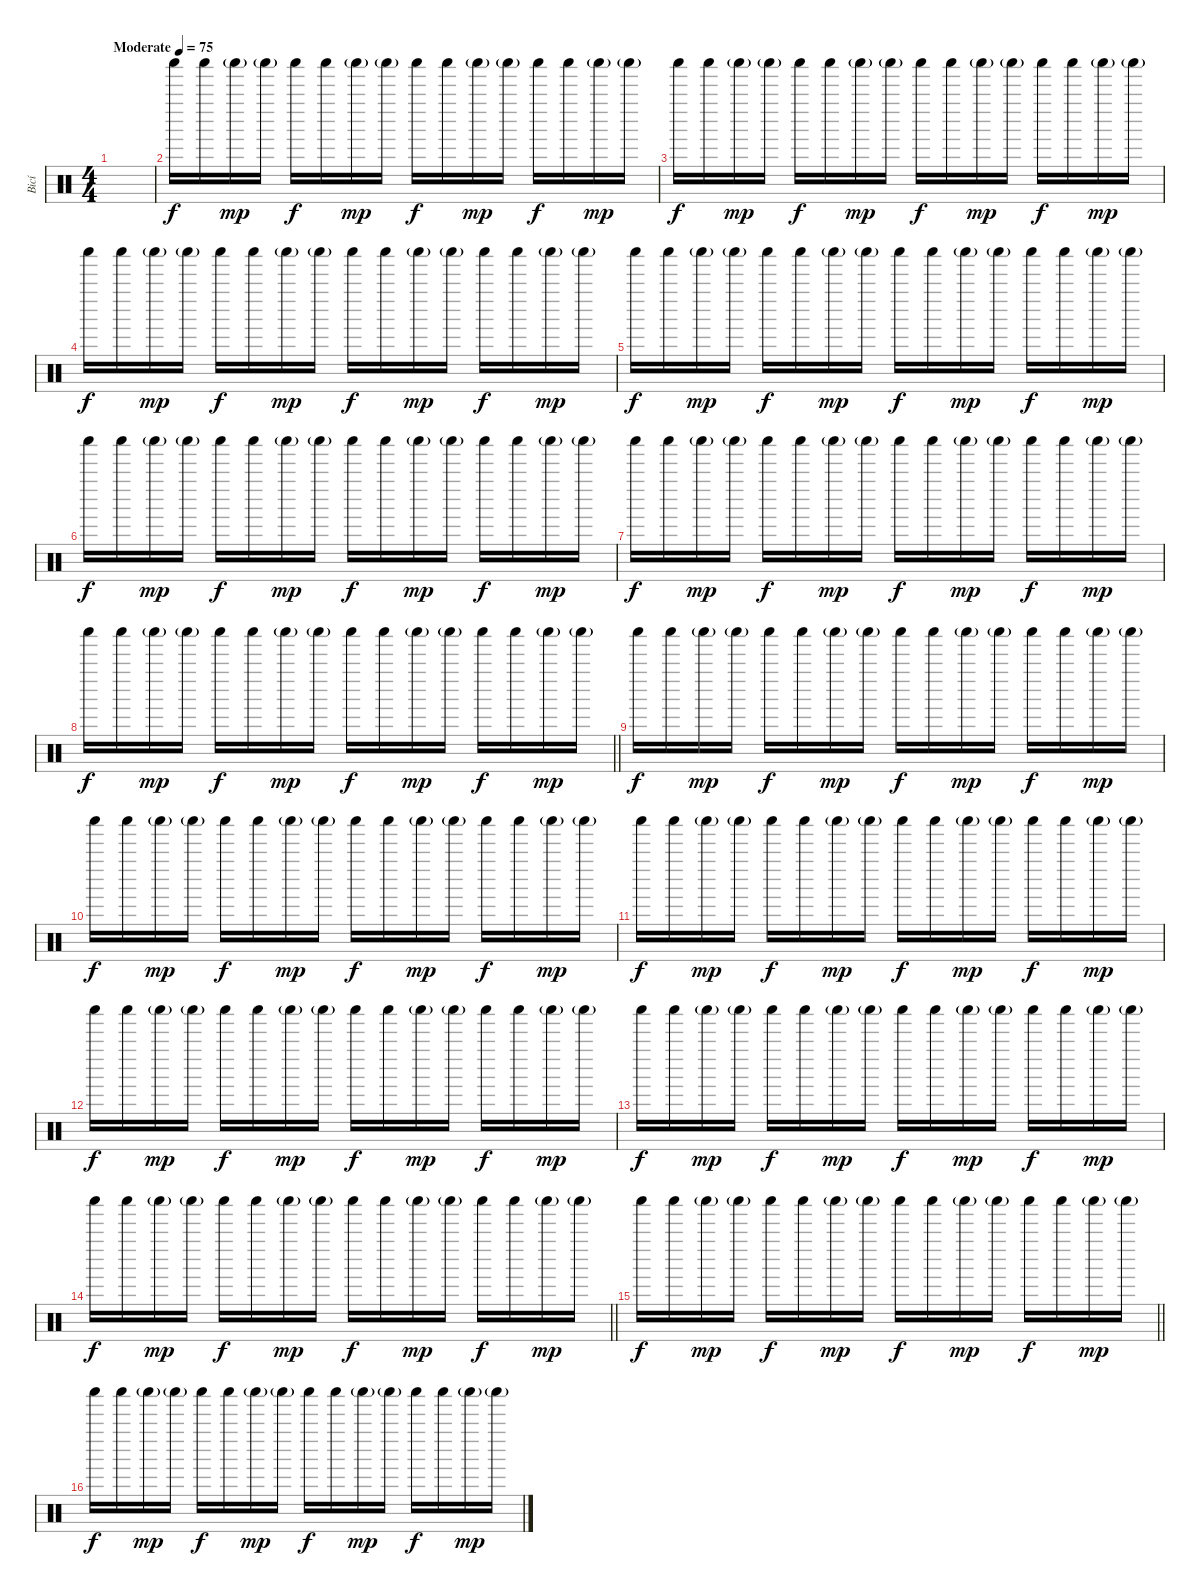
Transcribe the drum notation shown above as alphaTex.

\track ("Bicí" "Bicí") {instrument percussion}
\staff {score}
\articulation defaults
\ts (4 4)
\tempo (75 "Moderate")
\clef neutral
\ks c
|
"Shaker (hit)".16 "Shaker (hit)".16 "Shaker (hit)"{g}.16{dy mp} "Shaker (hit)"{g}.16 "Shaker (hit)".16{dy f} "Shaker (hit)".16 "Shaker (hit)"{g}.16{dy mp} "Shaker (hit)"{g}.16 "Shaker (hit)".16{dy f} "Shaker (hit)".16 "Shaker (hit)"{g}.16{dy mp} "Shaker (hit)"{g}.16 "Shaker (hit)".16{dy f} "Shaker (hit)".16 "Shaker (hit)"{g}.16{dy mp} "Shaker (hit)"{g}.16 |
"Shaker (hit)".16{dy f} "Shaker (hit)".16 "Shaker (hit)"{g}.16{dy mp} "Shaker (hit)"{g}.16 "Shaker (hit)".16{dy f} "Shaker (hit)".16 "Shaker (hit)"{g}.16{dy mp} "Shaker (hit)"{g}.16 "Shaker (hit)".16{dy f} "Shaker (hit)".16 "Shaker (hit)"{g}.16{dy mp} "Shaker (hit)"{g}.16 "Shaker (hit)".16{dy f} "Shaker (hit)".16 "Shaker (hit)"{g}.16{dy mp} "Shaker (hit)"{g}.16 |
"Shaker (hit)".16{dy f} "Shaker (hit)".16 "Shaker (hit)"{g}.16{dy mp} "Shaker (hit)"{g}.16 "Shaker (hit)".16{dy f} "Shaker (hit)".16 "Shaker (hit)"{g}.16{dy mp} "Shaker (hit)"{g}.16 "Shaker (hit)".16{dy f} "Shaker (hit)".16 "Shaker (hit)"{g}.16{dy mp} "Shaker (hit)"{g}.16 "Shaker (hit)".16{dy f} "Shaker (hit)".16 "Shaker (hit)"{g}.16{dy mp} "Shaker (hit)"{g}.16 |
"Shaker (hit)".16{dy f} "Shaker (hit)".16 "Shaker (hit)"{g}.16{dy mp} "Shaker (hit)"{g}.16 "Shaker (hit)".16{dy f} "Shaker (hit)".16 "Shaker (hit)"{g}.16{dy mp} "Shaker (hit)"{g}.16 "Shaker (hit)".16{dy f} "Shaker (hit)".16 "Shaker (hit)"{g}.16{dy mp} "Shaker (hit)"{g}.16 "Shaker (hit)".16{dy f} "Shaker (hit)".16 "Shaker (hit)"{g}.16{dy mp} "Shaker (hit)"{g}.16 |
"Shaker (hit)".16{dy f} "Shaker (hit)".16 "Shaker (hit)"{g}.16{dy mp} "Shaker (hit)"{g}.16 "Shaker (hit)".16{dy f} "Shaker (hit)".16 "Shaker (hit)"{g}.16{dy mp} "Shaker (hit)"{g}.16 "Shaker (hit)".16{dy f} "Shaker (hit)".16 "Shaker (hit)"{g}.16{dy mp} "Shaker (hit)"{g}.16 "Shaker (hit)".16{dy f} "Shaker (hit)".16 "Shaker (hit)"{g}.16{dy mp} "Shaker (hit)"{g}.16 |
"Shaker (hit)".16{dy f} "Shaker (hit)".16 "Shaker (hit)"{g}.16{dy mp} "Shaker (hit)"{g}.16 "Shaker (hit)".16{dy f} "Shaker (hit)".16 "Shaker (hit)"{g}.16{dy mp} "Shaker (hit)"{g}.16 "Shaker (hit)".16{dy f} "Shaker (hit)".16 "Shaker (hit)"{g}.16{dy mp} "Shaker (hit)"{g}.16 "Shaker (hit)".16{dy f} "Shaker (hit)".16 "Shaker (hit)"{g}.16{dy mp} "Shaker (hit)"{g}.16 |
\barLineRight lightlight "Shaker (hit)".16{dy f} "Shaker (hit)".16 "Shaker (hit)"{g}.16{dy mp} "Shaker (hit)"{g}.16 "Shaker (hit)".16{dy f} "Shaker (hit)".16 "Shaker (hit)"{g}.16{dy mp} "Shaker (hit)"{g}.16 "Shaker (hit)".16{dy f} "Shaker (hit)".16 "Shaker (hit)"{g}.16{dy mp} "Shaker (hit)"{g}.16 "Shaker (hit)".16{dy f} "Shaker (hit)".16 "Shaker (hit)"{g}.16{dy mp} "Shaker (hit)"{g}.16
|
\section ("" "")
"Shaker (hit)".16{dy f} "Shaker (hit)".16 "Shaker (hit)"{g}.16{dy mp} "Shaker (hit)"{g}.16 "Shaker (hit)".16{dy f} "Shaker (hit)".16 "Shaker (hit)"{g}.16{dy mp} "Shaker (hit)"{g}.16 "Shaker (hit)".16{dy f} "Shaker (hit)".16 "Shaker (hit)"{g}.16{dy mp} "Shaker (hit)"{g}.16 "Shaker (hit)".16{dy f} "Shaker (hit)".16 "Shaker (hit)"{g}.16{dy mp} "Shaker (hit)"{g}.16 |
"Shaker (hit)".16{dy f} "Shaker (hit)".16 "Shaker (hit)"{g}.16{dy mp} "Shaker (hit)"{g}.16 "Shaker (hit)".16{dy f} "Shaker (hit)".16 "Shaker (hit)"{g}.16{dy mp} "Shaker (hit)"{g}.16 "Shaker (hit)".16{dy f} "Shaker (hit)".16 "Shaker (hit)"{g}.16{dy mp} "Shaker (hit)"{g}.16 "Shaker (hit)".16{dy f} "Shaker (hit)".16 "Shaker (hit)"{g}.16{dy mp} "Shaker (hit)"{g}.16 |
"Shaker (hit)".16{dy f} "Shaker (hit)".16 "Shaker (hit)"{g}.16{dy mp} "Shaker (hit)"{g}.16 "Shaker (hit)".16{dy f} "Shaker (hit)".16 "Shaker (hit)"{g}.16{dy mp} "Shaker (hit)"{g}.16 "Shaker (hit)".16{dy f} "Shaker (hit)".16 "Shaker (hit)"{g}.16{dy mp} "Shaker (hit)"{g}.16 "Shaker (hit)".16{dy f} "Shaker (hit)".16 "Shaker (hit)"{g}.16{dy mp} "Shaker (hit)"{g}.16 |
"Shaker (hit)".16{dy f} "Shaker (hit)".16 "Shaker (hit)"{g}.16{dy mp} "Shaker (hit)"{g}.16 "Shaker (hit)".16{dy f} "Shaker (hit)".16 "Shaker (hit)"{g}.16{dy mp} "Shaker (hit)"{g}.16 "Shaker (hit)".16{dy f} "Shaker (hit)".16 "Shaker (hit)"{g}.16{dy mp} "Shaker (hit)"{g}.16 "Shaker (hit)".16{dy f} "Shaker (hit)".16 "Shaker (hit)"{g}.16{dy mp} "Shaker (hit)"{g}.16 |
"Shaker (hit)".16{dy f} "Shaker (hit)".16 "Shaker (hit)"{g}.16{dy mp} "Shaker (hit)"{g}.16 "Shaker (hit)".16{dy f} "Shaker (hit)".16 "Shaker (hit)"{g}.16{dy mp} "Shaker (hit)"{g}.16 "Shaker (hit)".16{dy f} "Shaker (hit)".16 "Shaker (hit)"{g}.16{dy mp} "Shaker (hit)"{g}.16 "Shaker (hit)".16{dy f} "Shaker (hit)".16 "Shaker (hit)"{g}.16{dy mp} "Shaker (hit)"{g}.16 |
\barLineRight lightlight "Shaker (hit)".16{dy f} "Shaker (hit)".16 "Shaker (hit)"{g}.16{dy mp} "Shaker (hit)"{g}.16 "Shaker (hit)".16{dy f} "Shaker (hit)".16 "Shaker (hit)"{g}.16{dy mp} "Shaker (hit)"{g}.16 "Shaker (hit)".16{dy f} "Shaker (hit)".16 "Shaker (hit)"{g}.16{dy mp} "Shaker (hit)"{g}.16 "Shaker (hit)".16{dy f} "Shaker (hit)".16 "Shaker (hit)"{g}.16{dy mp} "Shaker (hit)"{g}.16
|
\section ("" "")
\barLineRight lightlight "Shaker (hit)".16{dy f} "Shaker (hit)".16 "Shaker (hit)"{g}.16{dy mp} "Shaker (hit)"{g}.16 "Shaker (hit)".16{dy f} "Shaker (hit)".16 "Shaker (hit)"{g}.16{dy mp} "Shaker (hit)"{g}.16 "Shaker (hit)".16{dy f} "Shaker (hit)".16 "Shaker (hit)"{g}.16{dy mp} "Shaker (hit)"{g}.16 "Shaker (hit)".16{dy f} "Shaker (hit)".16 "Shaker (hit)"{g}.16{dy mp} "Shaker (hit)"{g}.16
|
\section ("" "")
"Shaker (hit)".16{dy f} "Shaker (hit)".16 "Shaker (hit)"{g}.16{dy mp} "Shaker (hit)"{g}.16 "Shaker (hit)".16{dy f} "Shaker (hit)".16 "Shaker (hit)"{g}.16{dy mp} "Shaker (hit)"{g}.16 "Shaker (hit)".16{dy f} "Shaker (hit)".16 "Shaker (hit)"{g}.16{dy mp} "Shaker (hit)"{g}.16 "Shaker (hit)".16{dy f} "Shaker (hit)".16 "Shaker (hit)"{g}.16{dy mp} "Shaker (hit)"{g}.16
